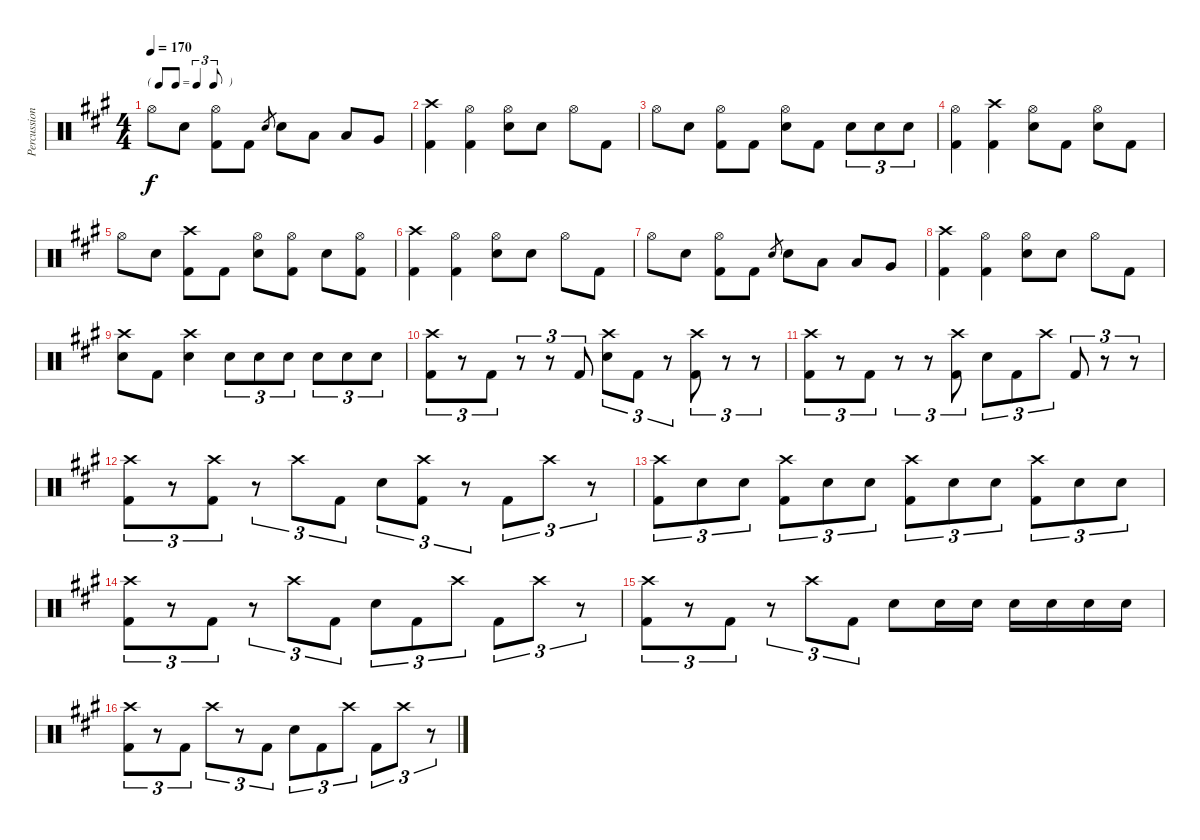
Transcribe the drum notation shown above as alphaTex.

\track ("Percussion" "Percussion") {instrument percussion}
\staff {score}
\articulation defaults
\ts (4 4)
\tf triplet8th
\tempo 170
\clef neutral
\ks a "Hi-Hat (open)".8{dy f} "Electric Snare (hit)".8
("Hi-Hat (open)" "Kick (hit) 2").8 "Kick (hit) 2".8 "Electric Snare (hit)".8{gr} "Electric Snare (hit)".8 "Low Tom (hit)".8 "Low Tom (hit)".8 "Very Low Tom (hit)".8 |
("Crash high (hit)" "Kick (hit) 2").4 ("Hi-Hat (open)" "Kick (hit) 2").4 ("Hi-Hat (open)" "Electric Snare (hit)").8 "Electric Snare (hit)".8 "Hi-Hat (open)".8 "Kick (hit) 2".8 |
"Hi-Hat (open)".8 "Electric Snare (hit)".8 ("Hi-Hat (open)" "Kick (hit) 2").8 "Kick (hit) 2".8 ("Hi-Hat (open)" "Electric Snare (hit)").8 "Kick (hit) 2".8 "Electric Snare (hit)".8{tu (3 2)} "Electric Snare (hit)".8{tu (3 2)} "Electric Snare (hit)".8{tu (3 2)} |
("Hi-Hat (open)" "Kick (hit) 2").4 ("Crash high (hit)" "Kick (hit) 2").4 ("Hi-Hat (open)" "Electric Snare (hit)").8 "Kick (hit) 2".8 ("Hi-Hat (open)" "Electric Snare (hit)").8 "Kick (hit) 2".8 |
"Hi-Hat (open)".8 "Electric Snare (hit)".8 ("Crash high (hit)" "Kick (hit) 2").8 "Kick (hit) 2".8 ("Hi-Hat (open)" "Electric Snare (hit)").8 ("Hi-Hat (open)" "Kick (hit) 2").8 "Electric Snare (hit)".8 ("Hi-Hat (open)" "Kick (hit) 2").8 |
("Crash high (hit)" "Kick (hit) 2").4 ("Hi-Hat (open)" "Kick (hit) 2").4 ("Hi-Hat (open)" "Electric Snare (hit)").8 "Electric Snare (hit)".8 "Hi-Hat (open)".8 "Kick (hit) 2".8 |
"Hi-Hat (open)".8 "Electric Snare (hit)".8 ("Hi-Hat (open)" "Kick (hit) 2").8 "Kick (hit) 2".8 "Electric Snare (hit)".8{gr} "Electric Snare (hit)".8 "Low Tom (hit)".8 "Low Tom (hit)".8 "Very Low Tom (hit)".8 |
("Crash high (hit)" "Kick (hit) 2").4 ("Hi-Hat (open)" "Kick (hit) 2").4 ("Hi-Hat (open)" "Electric Snare (hit)").8 "Electric Snare (hit)".8 "Hi-Hat (open)".8 "Kick (hit) 2".8 |
("Crash high (hit)" "Electric Snare (hit)").8 "Kick (hit) 2".8 ("Crash high (hit)" "Electric Snare (hit)").4 "Electric Snare (hit)".8{tu (3 2)} "Electric Snare (hit)".8{tu (3 2)} "Electric Snare (hit)".8{tu (3 2)} "Electric Snare (hit)".8{tu (3 2)} "Electric Snare (hit)".8{tu (3 2)} "Electric Snare (hit)".8{tu (3 2)} |
("Crash high (hit)" "Kick (hit) 2").8{tu (3 2)} r.8{tu (3 2)} "Kick (hit) 2".8{tu (3 2)} r.8{tu (3 2)} r.8{tu (3 2)} "Kick (hit) 2".8{tu (3 2)} ("Crash high (hit)" "Electric Snare (hit)").8{tu (3 2)} "Kick (hit) 2".8{tu (3 2)} r.8{tu (3 2)} ("Crash high (hit)" "Kick (hit) 2").8{tu (3 2)} r.8{tu (3 2)} r.8{tu (3 2)} |
("Crash high (hit)" "Kick (hit) 2").8{tu (3 2)} r.8{tu (3 2)} "Kick (hit) 2".8{tu (3 2)} r.8{tu (3 2)} r.8{tu (3 2)} ("Crash high (hit)" "Kick (hit) 2").8{tu (3 2)} "Electric Snare (hit)".8{tu (3 2)} "Kick (hit) 2".8{tu (3 2)} "Crash high (hit)".8{tu (3 2)} "Kick (hit) 2".8{tu (3 2)} r.8{tu (3 2)} r.8{tu (3 2)} |
("Crash high (hit)" "Kick (hit) 2").8{tu (3 2)} r.8{tu (3 2)} ("Crash high (hit)" "Kick (hit) 2").8{tu (3 2)} r.8{tu (3 2)} "Crash high (hit)".8{tu (3 2)} "Kick (hit) 2".8{tu (3 2)} "Electric Snare (hit)".8{tu (3 2)} ("Crash high (hit)" "Kick (hit) 2").8{tu (3 2)} r.8{tu (3 2)} "Kick (hit) 2".8{tu (3 2)} "Crash high (hit)".8{tu (3 2)} r.8{tu (3 2)} |
("Crash high (hit)" "Kick (hit) 2").8{tu (3 2)} "Electric Snare (hit)".8{tu (3 2)} "Electric Snare (hit)".8{tu (3 2)} ("Crash high (hit)" "Kick (hit) 2").8{tu (3 2)} "Electric Snare (hit)".8{tu (3 2)} "Electric Snare (hit)".8{tu (3 2)} ("Crash high (hit)" "Kick (hit) 2").8{tu (3 2)} "Electric Snare (hit)".8{tu (3 2)} "Electric Snare (hit)".8{tu (3 2)} ("Crash high (hit)" "Kick (hit) 2").8{tu (3 2)} "Electric Snare (hit)".8{tu (3 2)} "Electric Snare (hit)".8{tu (3 2)} |
("Crash high (hit)" "Kick (hit) 2").8{tu (3 2)} r.8{tu (3 2)} "Kick (hit) 2".8{tu (3 2)} r.8{tu (3 2)} "Crash high (hit)".8{tu (3 2)} "Kick (hit) 2".8{tu (3 2)} "Electric Snare (hit)".8{tu (3 2)} "Kick (hit) 2".8{tu (3 2)} "Crash high (hit)".8{tu (3 2)} "Kick (hit) 2".8{tu (3 2)} "Crash high (hit)".8{tu (3 2)} r.8{tu (3 2)} |
("Crash high (hit)" "Kick (hit) 2").8{tu (3 2)} r.8{tu (3 2)} "Kick (hit) 2".8{tu (3 2)} r.8{tu (3 2)} "Crash high (hit)".8{tu (3 2)} "Kick (hit) 2".8{tu (3 2)} "Electric Snare (hit)".8 "Electric Snare (hit)".16 "Electric Snare (hit)".16 "Electric Snare (hit)".16 "Electric Snare (hit)".16 "Electric Snare (hit)".16 "Electric Snare (hit)".16 |
("Crash high (hit)" "Kick (hit) 2").8{tu (3 2)} r.8{tu (3 2)} "Kick (hit) 2".8{tu (3 2)} "Crash high (hit)".8{tu (3 2)} r.8{tu (3 2)} "Kick (hit) 2".8{tu (3 2)} "Electric Snare (hit)".8{tu (3 2)} "Kick (hit) 2".8{tu (3 2)} "Crash high (hit)".8{tu (3 2)} "Kick (hit) 2".8{tu (3 2)} "Crash high (hit)".8{tu (3 2)} r.8{tu (3 2)}
